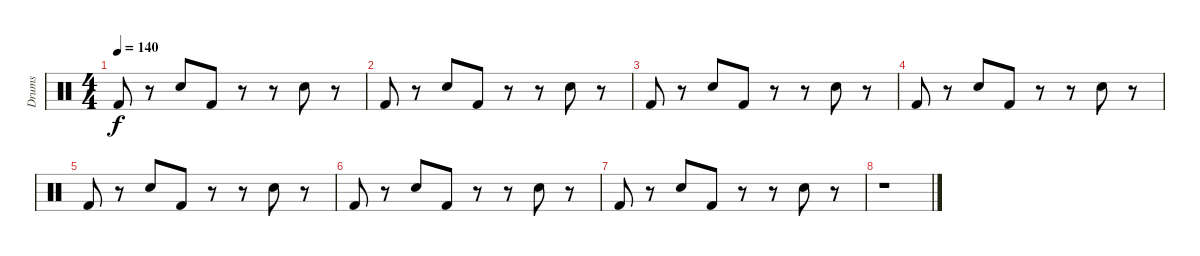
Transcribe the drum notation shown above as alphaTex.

\track ("Drums" "Drums") {instrument percussion}
\staff {score}
\articulation defaults
\ts (4 4)
\tempo 140
\clef neutral
\ks c "Kick (hit) 2".8{dy f}
r.8 "Electric Snare (hit)".8 "Kick (hit) 2".8 r.8 r.8 "Electric Snare (hit)".8 r.8 |
"Kick (hit) 2".8 r.8 "Electric Snare (hit)".8 "Kick (hit) 2".8 r.8 r.8 "Electric Snare (hit)".8 r.8 |
"Kick (hit) 2".8 r.8 "Electric Snare (hit)".8 "Kick (hit) 2".8 r.8 r.8 "Electric Snare (hit)".8 r.8 |
"Kick (hit) 2".8 r.8 "Electric Snare (hit)".8 "Kick (hit) 2".8 r.8 r.8 "Electric Snare (hit)".8 r.8 |
"Kick (hit) 2".8 r.8 "Electric Snare (hit)".8 "Kick (hit) 2".8 r.8 r.8 "Electric Snare (hit)".8 r.8 |
"Kick (hit) 2".8 r.8 "Electric Snare (hit)".8 "Kick (hit) 2".8 r.8 r.8 "Electric Snare (hit)".8 r.8 |
"Kick (hit) 2".8 r.8 "Electric Snare (hit)".8 "Kick (hit) 2".8 r.8 r.8 "Electric Snare (hit)".8 r.8 |
r.1
